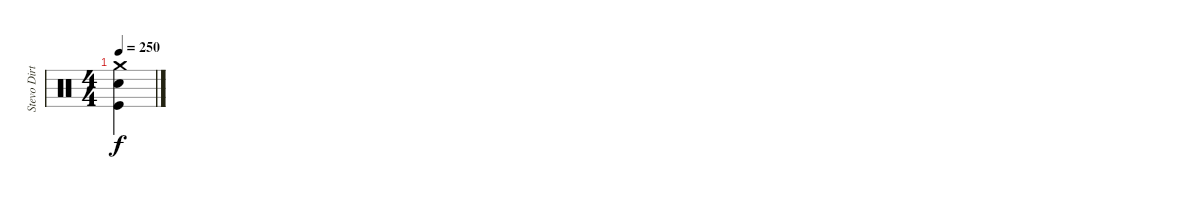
\track ("Stevo Dirty Poo" "Stevo Dirt") {instrument percussion}
\staff {score}
\articulation defaults
\ts (4 4)
\tempo 250
\clef neutral
\ks c
("Crash medium (hit)" "Snare (hit) 2" "Kick (hit)").4{dy f}
